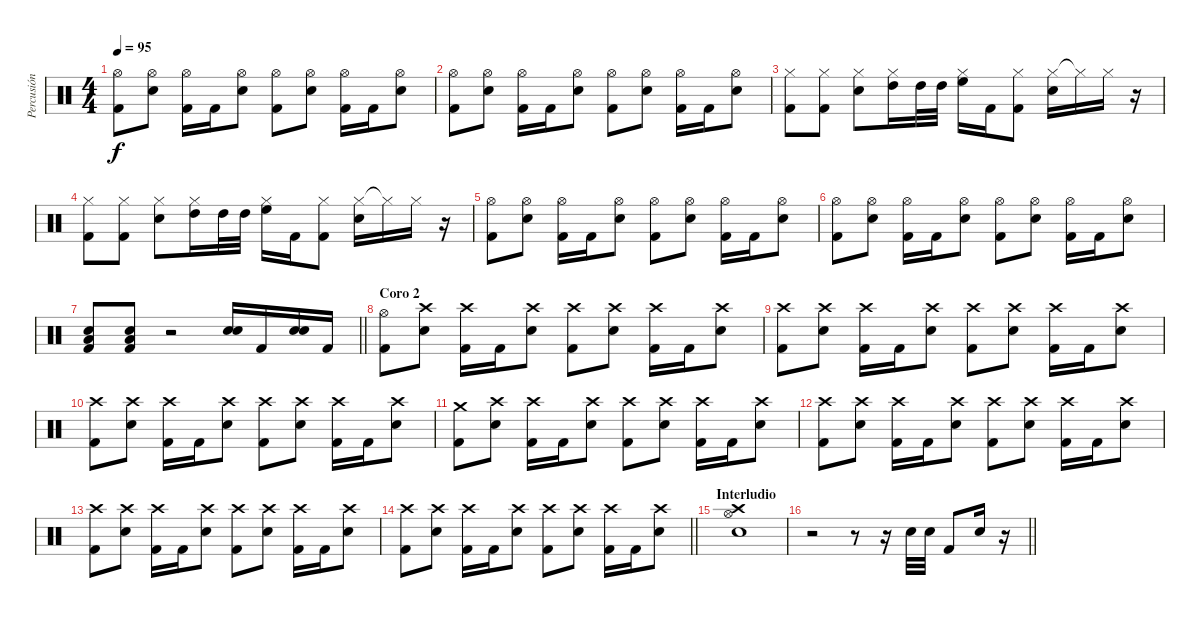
\track ("Percusión" "Percusión") {instrument percussion}
\staff {score}
\articulation defaults
\ts (4 4)
\tempo 95
\clef neutral
\ks c
("Hi-Hat (open)" "Kick (hit) 2").8{dy f} ("Hi-Hat (open)" "Electric Snare (hit)").8 ("Hi-Hat (open)" "Kick (hit) 2").16 "Kick (hit) 2".16 ("Hi-Hat (open)" "Electric Snare (hit)").8 ("Hi-Hat (open)" "Kick (hit) 2").8 ("Hi-Hat (open)" "Electric Snare (hit)").8 ("Hi-Hat (open)" "Kick (hit) 2").16 "Kick (hit) 2".16 ("Hi-Hat (open)" "Electric Snare (hit)").8 |
("Hi-Hat (open)" "Kick (hit) 2").8 ("Hi-Hat (open)" "Electric Snare (hit)").8 ("Hi-Hat (open)" "Kick (hit) 2").16 "Kick (hit) 2".16 ("Hi-Hat (open)" "Electric Snare (hit)").8 ("Hi-Hat (open)" "Kick (hit) 2").8 ("Hi-Hat (open)" "Electric Snare (hit)").8 ("Hi-Hat (open)" "Kick (hit) 2").16 "Kick (hit) 2".16 ("Hi-Hat (open)" "Electric Snare (hit)").8 |
("Hi-Hat (closed)" "Kick (hit) 2").8 ("Hi-Hat (closed)" "Kick (hit) 2").8 ("Hi-Hat (closed)" "Electric Snare (hit)").8 ("Hi-Hat (closed)" "High Tom (hit)").16 "High Tom (hit)".32 "High Tom (hit)".32 ("Hi-Hat (closed)" "High Floor Tom (hit)").16 "Kick (hit) 2".16 ("Hi-Hat (closed)" "Kick (hit) 2").8 ("Hi-Hat (closed)" "Electric Snare (hit)").16 "Hi-Hat (closed)"{t}.16 "Hi-Hat (closed)".16 r.16 |
("Hi-Hat (closed)" "Kick (hit) 2").8 ("Hi-Hat (closed)" "Kick (hit) 2").8 ("Hi-Hat (closed)" "Electric Snare (hit)").8 ("Hi-Hat (closed)" "High Tom (hit)").16 "High Tom (hit)".32 "High Tom (hit)".32 ("Hi-Hat (closed)" "High Floor Tom (hit)").16 "Kick (hit) 2".16 ("Hi-Hat (closed)" "Kick (hit) 2").8 ("Hi-Hat (closed)" "Electric Snare (hit)").16 "Hi-Hat (closed)"{t}.16 "Hi-Hat (closed)".16 r.16 |
("Hi-Hat (open)" "Kick (hit) 2").8 ("Hi-Hat (open)" "Electric Snare (hit)").8 ("Hi-Hat (open)" "Kick (hit) 2").16 "Kick (hit) 2".16 ("Hi-Hat (open)" "Electric Snare (hit)").8 ("Hi-Hat (open)" "Kick (hit) 2").8 ("Hi-Hat (open)" "Electric Snare (hit)").8 ("Hi-Hat (open)" "Kick (hit) 2").16 "Kick (hit) 2".16 ("Hi-Hat (open)" "Electric Snare (hit)").8 |
("Hi-Hat (open)" "Kick (hit) 2").8 ("Hi-Hat (open)" "Electric Snare (hit)").8 ("Hi-Hat (open)" "Kick (hit) 2").16 "Kick (hit) 2".16 ("Hi-Hat (open)" "Electric Snare (hit)").8 ("Hi-Hat (open)" "Kick (hit) 2").8 ("Hi-Hat (open)" "Electric Snare (hit)").8 ("Hi-Hat (open)" "Kick (hit) 2").16 "Kick (hit) 2".16 ("Hi-Hat (open)" "Electric Snare (hit)").8 |
\barLineRight lightlight
("Kick (hit) 2" "Low Floor Tom (hit)" "Electric Snare (hit)").8 ("Kick (hit) 2" "Low Floor Tom (hit)" "Electric Snare (hit)").8 r.2 ("Electric Snare (hit)" "Electric Snare (hit)").16 "Kick (hit) 2".16 ("Electric Snare (hit)" "Electric Snare (hit)").16 "Kick (hit) 2".16 |
\section ("" "Coro 2")
("Hi-Hat (open)" "Kick (hit) 2").8 ("Crash high (hit)" "Electric Snare (hit)").8 ("Crash high (hit)" "Kick (hit) 2").16 "Kick (hit) 2".16 ("Crash high (hit)" "Electric Snare (hit)").8 ("Crash high (hit)" "Kick (hit) 2").8 ("Crash high (hit)" "Electric Snare (hit)").8 ("Crash high (hit)" "Kick (hit) 2").16 "Kick (hit) 2".16 ("Crash high (hit)" "Electric Snare (hit)").8 |
("Crash high (hit)" "Kick (hit) 2").8 ("Crash high (hit)" "Electric Snare (hit)").8 ("Crash high (hit)" "Kick (hit) 2").16 "Kick (hit) 2".16 ("Crash high (hit)" "Electric Snare (hit)").8 ("Crash high (hit)" "Kick (hit) 2").8 ("Crash high (hit)" "Electric Snare (hit)").8 ("Crash high (hit)" "Kick (hit) 2").16 "Kick (hit) 2".16 ("Crash high (hit)" "Electric Snare (hit)").8 |
("Crash high (hit)" "Kick (hit) 2").8 ("Crash high (hit)" "Electric Snare (hit)").8 ("Crash high (hit)" "Kick (hit) 2").16 "Kick (hit) 2".16 ("Crash high (hit)" "Electric Snare (hit)").8 ("Crash high (hit)" "Kick (hit) 2").8 ("Crash high (hit)" "Electric Snare (hit)").8 ("Crash high (hit)" "Kick (hit) 2").16 "Kick (hit) 2".16 ("Crash high (hit)" "Electric Snare (hit)").8 |
("Crash medium (hit)" "Kick (hit) 2").8 ("Crash high (hit)" "Electric Snare (hit)").8 ("Crash high (hit)" "Kick (hit) 2").16 "Kick (hit) 2".16 ("Crash high (hit)" "Electric Snare (hit)").8 ("Crash high (hit)" "Kick (hit) 2").8 ("Crash high (hit)" "Electric Snare (hit)").8 ("Crash high (hit)" "Kick (hit) 2").16 "Kick (hit) 2".16 ("Crash high (hit)" "Electric Snare (hit)").8 |
("Crash high (hit)" "Kick (hit) 2").8 ("Crash high (hit)" "Electric Snare (hit)").8 ("Crash high (hit)" "Kick (hit) 2").16 "Kick (hit) 2".16 ("Crash high (hit)" "Electric Snare (hit)").8 ("Crash high (hit)" "Kick (hit) 2").8 ("Crash high (hit)" "Electric Snare (hit)").8 ("Crash high (hit)" "Kick (hit) 2").16 "Kick (hit) 2".16 ("Crash high (hit)" "Electric Snare (hit)").8 |
("Crash high (hit)" "Kick (hit) 2").8 ("Crash high (hit)" "Electric Snare (hit)").8 ("Crash high (hit)" "Kick (hit) 2").16 "Kick (hit) 2".16 ("Crash high (hit)" "Electric Snare (hit)").8 ("Crash high (hit)" "Kick (hit) 2").8 ("Crash high (hit)" "Electric Snare (hit)").8 ("Crash high (hit)" "Kick (hit) 2").16 "Kick (hit) 2".16 ("Crash high (hit)" "Electric Snare (hit)").8 |
\barLineRight lightlight
("Crash high (hit)" "Kick (hit) 2").8 ("Crash high (hit)" "Electric Snare (hit)").8 ("Crash high (hit)" "Kick (hit) 2").16 "Kick (hit) 2".16 ("Crash high (hit)" "Electric Snare (hit)").8 ("Crash high (hit)" "Kick (hit) 2").8 ("Crash high (hit)" "Electric Snare (hit)").8 ("Crash high (hit)" "Kick (hit) 2").16 "Kick (hit) 2".16 ("Crash high (hit)" "Electric Snare (hit)").8 |
\section ("" "Interludio")
("Crash high (hit)" "Electric Snare (hit)" "Hi-Hat (open)").1 |
\barLineRight lightlight
r.2 r.8 r.16 "Electric Snare (hit)".32 "Electric Snare (hit)".32 "Kick (hit) 2".8 "Electric Snare (hit)".16 r.16
